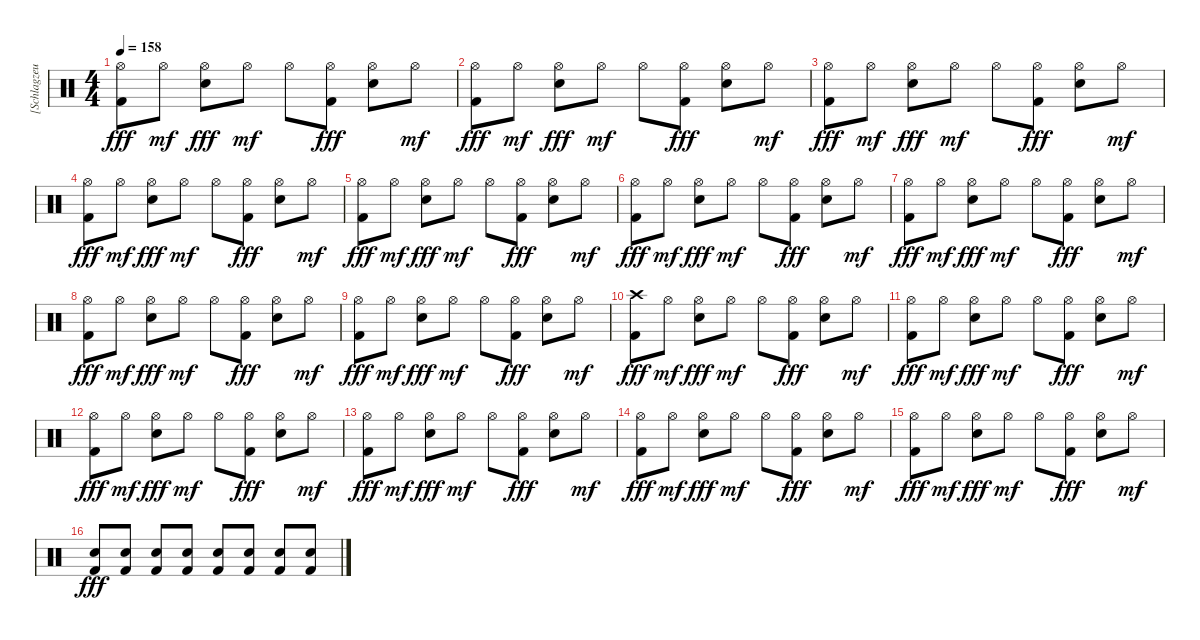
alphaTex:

\track ("[Schlagzeug]" "[Schlagzeu") {instrument percussion}
\staff {score}
\articulation defaults
\ts (4 4)
\tempo 158
\clef neutral
\ks c
("Hi-Hat (open)" "Kick (hit) 2").8{dy fff} "Hi-Hat (open)".8{dy mf} ("Hi-Hat (open)" "Electric Snare (hit)").8{dy fff} "Hi-Hat (open)".8{dy mf} "Hi-Hat (open)".8 ("Hi-Hat (open)" "Kick (hit) 2").8{dy fff} ("Hi-Hat (open)" "Electric Snare (hit)").8 "Hi-Hat (open)".8{dy mf} |
("Hi-Hat (open)" "Kick (hit) 2").8{dy fff} "Hi-Hat (open)".8{dy mf} ("Hi-Hat (open)" "Electric Snare (hit)").8{dy fff} "Hi-Hat (open)".8{dy mf} "Hi-Hat (open)".8 ("Hi-Hat (open)" "Kick (hit) 2").8{dy fff} ("Hi-Hat (open)" "Electric Snare (hit)").8 "Hi-Hat (open)".8{dy mf} |
("Hi-Hat (open)" "Kick (hit) 2").8{dy fff} "Hi-Hat (open)".8{dy mf} ("Hi-Hat (open)" "Electric Snare (hit)").8{dy fff} "Hi-Hat (open)".8{dy mf} "Hi-Hat (open)".8 ("Hi-Hat (open)" "Kick (hit) 2").8{dy fff} ("Hi-Hat (open)" "Electric Snare (hit)").8 "Hi-Hat (open)".8{dy mf} |
("Hi-Hat (open)" "Kick (hit) 2").8{dy fff} "Hi-Hat (open)".8{dy mf} ("Hi-Hat (open)" "Electric Snare (hit)").8{dy fff} "Hi-Hat (open)".8{dy mf} "Hi-Hat (open)".8 ("Hi-Hat (open)" "Kick (hit) 2").8{dy fff} ("Hi-Hat (open)" "Electric Snare (hit)").8 "Hi-Hat (open)".8{dy mf} |
("Hi-Hat (open)" "Kick (hit) 2").8{dy fff} "Hi-Hat (open)".8{dy mf} ("Hi-Hat (open)" "Electric Snare (hit)").8{dy fff} "Hi-Hat (open)".8{dy mf} "Hi-Hat (open)".8 ("Hi-Hat (open)" "Kick (hit) 2").8{dy fff} ("Hi-Hat (open)" "Electric Snare (hit)").8 "Hi-Hat (open)".8{dy mf} |
("Hi-Hat (open)" "Kick (hit) 2").8{dy fff} "Hi-Hat (open)".8{dy mf} ("Hi-Hat (open)" "Electric Snare (hit)").8{dy fff} "Hi-Hat (open)".8{dy mf} "Hi-Hat (open)".8 ("Hi-Hat (open)" "Kick (hit) 2").8{dy fff} ("Hi-Hat (open)" "Electric Snare (hit)").8 "Hi-Hat (open)".8{dy mf} |
("Hi-Hat (open)" "Kick (hit) 2").8{dy fff} "Hi-Hat (open)".8{dy mf} ("Hi-Hat (open)" "Electric Snare (hit)").8{dy fff} "Hi-Hat (open)".8{dy mf} "Hi-Hat (open)".8 ("Hi-Hat (open)" "Kick (hit) 2").8{dy fff} ("Hi-Hat (open)" "Electric Snare (hit)").8 "Hi-Hat (open)".8{dy mf} |
("Hi-Hat (open)" "Kick (hit) 2").8{dy fff} "Hi-Hat (open)".8{dy mf} ("Hi-Hat (open)" "Electric Snare (hit)").8{dy fff} "Hi-Hat (open)".8{dy mf} "Hi-Hat (open)".8 ("Hi-Hat (open)" "Kick (hit) 2").8{dy fff} ("Hi-Hat (open)" "Electric Snare (hit)").8 "Hi-Hat (open)".8{dy mf} |
("Hi-Hat (open)" "Kick (hit) 2").8{dy fff} "Hi-Hat (open)".8{dy mf} ("Hi-Hat (open)" "Electric Snare (hit)").8{dy fff} "Hi-Hat (open)".8{dy mf} "Hi-Hat (open)".8 ("Hi-Hat (open)" "Kick (hit) 2").8{dy fff} ("Hi-Hat (open)" "Electric Snare (hit)").8 "Hi-Hat (open)".8{dy mf} |
("Crash high (hit)" "Kick (hit) 2").8{dy fff} "Hi-Hat (open)".8{dy mf} ("Hi-Hat (open)" "Electric Snare (hit)").8{dy fff} "Hi-Hat (open)".8{dy mf} "Hi-Hat (open)".8 ("Hi-Hat (open)" "Kick (hit) 2").8{dy fff} ("Hi-Hat (open)" "Electric Snare (hit)").8 "Hi-Hat (open)".8{dy mf} |
("Hi-Hat (open)" "Kick (hit) 2").8{dy fff} "Hi-Hat (open)".8{dy mf} ("Hi-Hat (open)" "Electric Snare (hit)").8{dy fff} "Hi-Hat (open)".8{dy mf} "Hi-Hat (open)".8 ("Hi-Hat (open)" "Kick (hit) 2").8{dy fff} ("Hi-Hat (open)" "Electric Snare (hit)").8 "Hi-Hat (open)".8{dy mf} |
("Hi-Hat (open)" "Kick (hit) 2").8{dy fff} "Hi-Hat (open)".8{dy mf} ("Hi-Hat (open)" "Electric Snare (hit)").8{dy fff} "Hi-Hat (open)".8{dy mf} "Hi-Hat (open)".8 ("Hi-Hat (open)" "Kick (hit) 2").8{dy fff} ("Hi-Hat (open)" "Electric Snare (hit)").8 "Hi-Hat (open)".8{dy mf} |
("Hi-Hat (open)" "Kick (hit) 2").8{dy fff} "Hi-Hat (open)".8{dy mf} ("Hi-Hat (open)" "Electric Snare (hit)").8{dy fff} "Hi-Hat (open)".8{dy mf} "Hi-Hat (open)".8 ("Hi-Hat (open)" "Kick (hit) 2").8{dy fff} ("Hi-Hat (open)" "Electric Snare (hit)").8 "Hi-Hat (open)".8{dy mf} |
("Hi-Hat (open)" "Kick (hit) 2").8{dy fff} "Hi-Hat (open)".8{dy mf} ("Hi-Hat (open)" "Electric Snare (hit)").8{dy fff} "Hi-Hat (open)".8{dy mf} "Hi-Hat (open)".8 ("Hi-Hat (open)" "Kick (hit) 2").8{dy fff} ("Hi-Hat (open)" "Electric Snare (hit)").8 "Hi-Hat (open)".8{dy mf} |
("Hi-Hat (open)" "Kick (hit) 2").8{dy fff} "Hi-Hat (open)".8{dy mf} ("Hi-Hat (open)" "Electric Snare (hit)").8{dy fff} "Hi-Hat (open)".8{dy mf} "Hi-Hat (open)".8 ("Hi-Hat (open)" "Kick (hit) 2").8{dy fff} ("Hi-Hat (open)" "Electric Snare (hit)").8 "Hi-Hat (open)".8{dy mf} |
("Electric Snare (hit)" "Kick (hit) 2").8{dy fff} ("Electric Snare (hit)" "Kick (hit) 2").8 ("Electric Snare (hit)" "Kick (hit) 2").8 ("Electric Snare (hit)" "Kick (hit) 2").8 ("Electric Snare (hit)" "Kick (hit) 2").8 ("Electric Snare (hit)" "Kick (hit) 2").8 ("Electric Snare (hit)" "Kick (hit) 2").8 ("Electric Snare (hit)" "Kick (hit) 2").8
